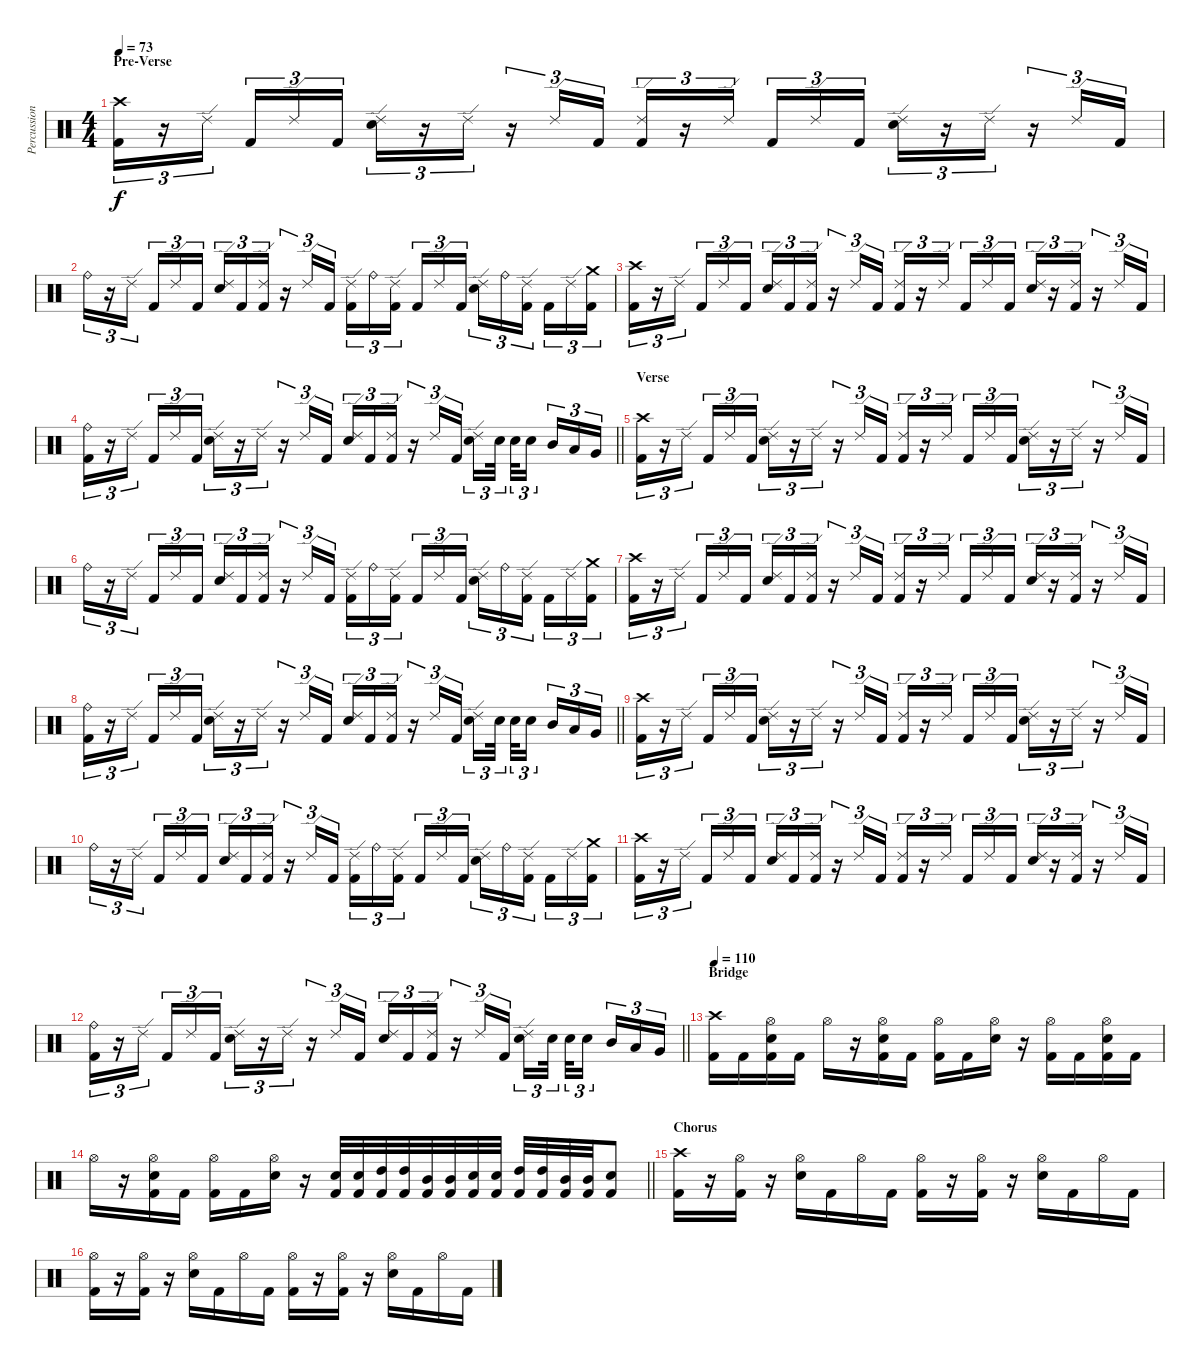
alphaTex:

\track ("Percussion" "Percussion") {instrument percussion}
\staff {score}
\articulation defaults
\ts (4 4)
\section ("" "Pre-Verse")
\tempo 73
\clef neutral
\ks c
("Crash high (hit)" "Kick (hit) 2").16{tu (3 2) dy f} r.16{tu (3 2)} "Ride (edge) 2".16{tu (3 2) beam splitsecondary} "Kick (hit) 2".16{tu (3 2)} "Ride (edge) 2".16{tu (3 2)} "Kick (hit) 2".16{tu (3 2)} ("Ride (edge) 2" "Snare (hit) 2").16{tu (3 2)} r.16{tu (3 2)} "Ride (edge) 2".16{tu (3 2)} r.16{tu (3 2)} "Ride (edge) 2".16{tu (3 2)} "Kick (hit) 2".16{tu (3 2)} ("Ride (edge) 2" "Kick (hit) 2").16{tu (3 2)} r.16{tu (3 2)} "Ride (edge) 2".16{tu (3 2) beam splitsecondary} "Kick (hit) 2".16{tu (3 2)} "Ride (edge) 2".16{tu (3 2)} "Kick (hit) 2".16{tu (3 2)} ("Ride (edge) 2" "Snare (hit) 2").16{tu (3 2)} r.16{tu (3 2)} "Ride (edge) 2".16{tu (3 2)} r.16{tu (3 2)} "Ride (edge) 2".16{tu (3 2)} "Kick (hit) 2".16{tu (3 2)} |
"Ride (bell)".16{tu (3 2)} r.16{tu (3 2)} "Ride (edge) 2".16{tu (3 2) beam splitsecondary} "Kick (hit) 2".16{tu (3 2)} "Ride (edge) 2".16{tu (3 2)} "Kick (hit) 2".16{tu (3 2)} ("Ride (edge) 2" "Snare (hit) 2").16{tu (3 2)} "Kick (hit) 2".16{tu (3 2)} ("Ride (edge) 2" "Kick (hit) 2").16{tu (3 2)} r.16{tu (3 2)} "Ride (edge) 2".16{tu (3 2)} "Kick (hit) 2".16{tu (3 2)} ("Ride (edge) 2" "Kick (hit) 2").16{tu (3 2)} "Ride (bell)".16{tu (3 2)} ("Ride (edge) 2" "Kick (hit) 2").16{tu (3 2) beam splitsecondary} "Kick (hit) 2".16{tu (3 2)} "Ride (edge) 2".16{tu (3 2)} "Kick (hit) 2".16{tu (3 2)} ("Ride (edge) 2" "Snare (hit) 2").16{tu (3 2)} "Ride (bell)".16{tu (3 2)} ("Ride (edge) 2" "Kick (hit) 2").16{tu (3 2) beam splitsecondary} "Kick (hit) 2".16{tu (3 2)} "Ride (edge) 2".16{tu (3 2)} ("Crash medium (hit)" "Kick (hit) 2").16{tu (3 2)} |
("Crash high (hit)" "Kick (hit) 2").16{tu (3 2)} r.16{tu (3 2)} "Ride (edge) 2".16{tu (3 2) beam splitsecondary} "Kick (hit) 2".16{tu (3 2)} "Ride (edge) 2".16{tu (3 2)} "Kick (hit) 2".16{tu (3 2)} ("Ride (edge) 2" "Snare (hit) 2").16{tu (3 2)} "Kick (hit) 2".16{tu (3 2)} ("Ride (edge) 2" "Kick (hit) 2").16{tu (3 2)} r.16{tu (3 2)} "Ride (edge) 2".16{tu (3 2)} "Kick (hit) 2".16{tu (3 2)} ("Ride (edge) 2" "Kick (hit) 2").16{tu (3 2)} r.16{tu (3 2)} "Ride (edge) 2".16{tu (3 2) beam splitsecondary} "Kick (hit) 2".16{tu (3 2)} "Ride (edge) 2".16{tu (3 2)} "Kick (hit) 2".16{tu (3 2)} ("Ride (edge) 2" "Snare (hit) 2").16{tu (3 2)} r.16{tu (3 2)} ("Ride (edge) 2" "Kick (hit) 2").16{tu (3 2)} r.16{tu (3 2)} "Ride (edge) 2".16{tu (3 2)} "Kick (hit) 2".16{tu (3 2)} |
\barLineRight lightlight
("Ride (bell)" "Kick (hit) 2").16{tu (3 2)} r.16{tu (3 2)} "Ride (edge) 2".16{tu (3 2) beam splitsecondary} "Kick (hit) 2".16{tu (3 2)} "Ride (edge) 2".16{tu (3 2)} "Kick (hit) 2".16{tu (3 2)} ("Ride (edge) 2" "Snare (hit) 2").16{tu (3 2)} r.16{tu (3 2)} "Ride (edge) 2".16{tu (3 2)} r.16{tu (3 2)} "Ride (edge) 2".16{tu (3 2)} "Kick (hit) 2".16{tu (3 2)} ("Ride (edge) 2" "Snare (hit) 2").16{tu (3 2)} "Kick (hit) 2".16{tu (3 2)} ("Ride (edge) 2" "Kick (hit) 2").16{tu (3 2)} r.16{tu (3 2)} "Ride (edge) 2".16{tu (3 2)} "Kick (hit) 2".16{tu (3 2)} ("Ride (edge) 2" "Snare (hit) 2").16{tu (3 2)} "Snare (hit) 2".32{tu (3 2) beam splitsecondary} "Snare (hit) 2".32{tu (3 2)} "Snare (hit) 2".16{tu (3 2) beam splitsecondary} "Mid Tom (hit)".16{tu (3 2)} "Low Tom (hit)".16{tu (3 2)} "Very Low Tom (hit)".16{tu (3 2)} |
\section ("" "Verse")
("Crash high (hit)" "Kick (hit) 2").16{tu (3 2)} r.16{tu (3 2)} "Ride (edge) 2".16{tu (3 2) beam splitsecondary} "Kick (hit) 2".16{tu (3 2)} "Ride (edge) 2".16{tu (3 2)} "Kick (hit) 2".16{tu (3 2)} ("Ride (edge) 2" "Snare (hit) 2").16{tu (3 2)} r.16{tu (3 2)} "Ride (edge) 2".16{tu (3 2)} r.16{tu (3 2)} "Ride (edge) 2".16{tu (3 2)} "Kick (hit) 2".16{tu (3 2)} ("Ride (edge) 2" "Kick (hit) 2").16{tu (3 2)} r.16{tu (3 2)} "Ride (edge) 2".16{tu (3 2) beam splitsecondary} "Kick (hit) 2".16{tu (3 2)} "Ride (edge) 2".16{tu (3 2)} "Kick (hit) 2".16{tu (3 2)} ("Ride (edge) 2" "Snare (hit) 2").16{tu (3 2)} r.16{tu (3 2)} "Ride (edge) 2".16{tu (3 2)} r.16{tu (3 2)} "Ride (edge) 2".16{tu (3 2)} "Kick (hit) 2".16{tu (3 2)} |
"Ride (bell)".16{tu (3 2)} r.16{tu (3 2)} "Ride (edge) 2".16{tu (3 2) beam splitsecondary} "Kick (hit) 2".16{tu (3 2)} "Ride (edge) 2".16{tu (3 2)} "Kick (hit) 2".16{tu (3 2)} ("Ride (edge) 2" "Snare (hit) 2").16{tu (3 2)} "Kick (hit) 2".16{tu (3 2)} ("Ride (edge) 2" "Kick (hit) 2").16{tu (3 2)} r.16{tu (3 2)} "Ride (edge) 2".16{tu (3 2)} "Kick (hit) 2".16{tu (3 2)} ("Ride (edge) 2" "Kick (hit) 2").16{tu (3 2)} "Ride (bell)".16{tu (3 2)} ("Ride (edge) 2" "Kick (hit) 2").16{tu (3 2) beam splitsecondary} "Kick (hit) 2".16{tu (3 2)} "Ride (edge) 2".16{tu (3 2)} "Kick (hit) 2".16{tu (3 2)} ("Ride (edge) 2" "Snare (hit) 2").16{tu (3 2)} "Ride (bell)".16{tu (3 2)} ("Ride (edge) 2" "Kick (hit) 2").16{tu (3 2) beam splitsecondary} "Kick (hit) 2".16{tu (3 2)} "Ride (edge) 2".16{tu (3 2)} ("Crash medium (hit)" "Kick (hit) 2").16{tu (3 2)} |
("Crash high (hit)" "Kick (hit) 2").16{tu (3 2)} r.16{tu (3 2)} "Ride (edge) 2".16{tu (3 2) beam splitsecondary} "Kick (hit) 2".16{tu (3 2)} "Ride (edge) 2".16{tu (3 2)} "Kick (hit) 2".16{tu (3 2)} ("Ride (edge) 2" "Snare (hit) 2").16{tu (3 2)} "Kick (hit) 2".16{tu (3 2)} ("Ride (edge) 2" "Kick (hit) 2").16{tu (3 2)} r.16{tu (3 2)} "Ride (edge) 2".16{tu (3 2)} "Kick (hit) 2".16{tu (3 2)} ("Ride (edge) 2" "Kick (hit) 2").16{tu (3 2)} r.16{tu (3 2)} "Ride (edge) 2".16{tu (3 2) beam splitsecondary} "Kick (hit) 2".16{tu (3 2)} "Ride (edge) 2".16{tu (3 2)} "Kick (hit) 2".16{tu (3 2)} ("Ride (edge) 2" "Snare (hit) 2").16{tu (3 2)} r.16{tu (3 2)} ("Ride (edge) 2" "Kick (hit) 2").16{tu (3 2)} r.16{tu (3 2)} "Ride (edge) 2".16{tu (3 2)} "Kick (hit) 2".16{tu (3 2)} |
\barLineRight lightlight
("Ride (bell)" "Kick (hit) 2").16{tu (3 2)} r.16{tu (3 2)} "Ride (edge) 2".16{tu (3 2) beam splitsecondary} "Kick (hit) 2".16{tu (3 2)} "Ride (edge) 2".16{tu (3 2)} "Kick (hit) 2".16{tu (3 2)} ("Ride (edge) 2" "Snare (hit) 2").16{tu (3 2)} r.16{tu (3 2)} "Ride (edge) 2".16{tu (3 2)} r.16{tu (3 2)} "Ride (edge) 2".16{tu (3 2)} "Kick (hit) 2".16{tu (3 2)} ("Ride (edge) 2" "Snare (hit) 2").16{tu (3 2)} "Kick (hit) 2".16{tu (3 2)} ("Ride (edge) 2" "Kick (hit) 2").16{tu (3 2)} r.16{tu (3 2)} "Ride (edge) 2".16{tu (3 2)} "Kick (hit) 2".16{tu (3 2)} ("Ride (edge) 2" "Snare (hit) 2").16{tu (3 2)} "Snare (hit) 2".32{tu (3 2) beam splitsecondary} "Snare (hit) 2".32{tu (3 2)} "Snare (hit) 2".16{tu (3 2) beam splitsecondary} "Mid Tom (hit)".16{tu (3 2)} "Low Tom (hit)".16{tu (3 2)} "Very Low Tom (hit)".16{tu (3 2)} |
("Crash high (hit)" "Kick (hit) 2").16{tu (3 2)} r.16{tu (3 2)} "Ride (edge) 2".16{tu (3 2) beam splitsecondary} "Kick (hit) 2".16{tu (3 2)} "Ride (edge) 2".16{tu (3 2)} "Kick (hit) 2".16{tu (3 2)} ("Ride (edge) 2" "Snare (hit) 2").16{tu (3 2)} r.16{tu (3 2)} "Ride (edge) 2".16{tu (3 2)} r.16{tu (3 2)} "Ride (edge) 2".16{tu (3 2)} "Kick (hit) 2".16{tu (3 2)} ("Ride (edge) 2" "Kick (hit) 2").16{tu (3 2)} r.16{tu (3 2)} "Ride (edge) 2".16{tu (3 2) beam splitsecondary} "Kick (hit) 2".16{tu (3 2)} "Ride (edge) 2".16{tu (3 2)} "Kick (hit) 2".16{tu (3 2)} ("Ride (edge) 2" "Snare (hit) 2").16{tu (3 2)} r.16{tu (3 2)} "Ride (edge) 2".16{tu (3 2)} r.16{tu (3 2)} "Ride (edge) 2".16{tu (3 2)} "Kick (hit) 2".16{tu (3 2)} |
"Ride (bell)".16{tu (3 2)} r.16{tu (3 2)} "Ride (edge) 2".16{tu (3 2) beam splitsecondary} "Kick (hit) 2".16{tu (3 2)} "Ride (edge) 2".16{tu (3 2)} "Kick (hit) 2".16{tu (3 2)} ("Ride (edge) 2" "Snare (hit) 2").16{tu (3 2)} "Kick (hit) 2".16{tu (3 2)} ("Ride (edge) 2" "Kick (hit) 2").16{tu (3 2)} r.16{tu (3 2)} "Ride (edge) 2".16{tu (3 2)} "Kick (hit) 2".16{tu (3 2)} ("Ride (edge) 2" "Kick (hit) 2").16{tu (3 2)} "Ride (bell)".16{tu (3 2)} ("Ride (edge) 2" "Kick (hit) 2").16{tu (3 2) beam splitsecondary} "Kick (hit) 2".16{tu (3 2)} "Ride (edge) 2".16{tu (3 2)} "Kick (hit) 2".16{tu (3 2)} ("Ride (edge) 2" "Snare (hit) 2").16{tu (3 2)} "Ride (bell)".16{tu (3 2)} ("Ride (edge) 2" "Kick (hit) 2").16{tu (3 2) beam splitsecondary} "Kick (hit) 2".16{tu (3 2)} "Ride (edge) 2".16{tu (3 2)} ("Crash medium (hit)" "Kick (hit) 2").16{tu (3 2)} |
("Crash high (hit)" "Kick (hit) 2").16{tu (3 2)} r.16{tu (3 2)} "Ride (edge) 2".16{tu (3 2) beam splitsecondary} "Kick (hit) 2".16{tu (3 2)} "Ride (edge) 2".16{tu (3 2)} "Kick (hit) 2".16{tu (3 2)} ("Ride (edge) 2" "Snare (hit) 2").16{tu (3 2)} "Kick (hit) 2".16{tu (3 2)} ("Ride (edge) 2" "Kick (hit) 2").16{tu (3 2)} r.16{tu (3 2)} "Ride (edge) 2".16{tu (3 2)} "Kick (hit) 2".16{tu (3 2)} ("Ride (edge) 2" "Kick (hit) 2").16{tu (3 2)} r.16{tu (3 2)} "Ride (edge) 2".16{tu (3 2) beam splitsecondary} "Kick (hit) 2".16{tu (3 2)} "Ride (edge) 2".16{tu (3 2)} "Kick (hit) 2".16{tu (3 2)} ("Ride (edge) 2" "Snare (hit) 2").16{tu (3 2)} r.16{tu (3 2)} ("Ride (edge) 2" "Kick (hit) 2").16{tu (3 2)} r.16{tu (3 2)} "Ride (edge) 2".16{tu (3 2)} "Kick (hit) 2".16{tu (3 2)} |
\barLineRight lightlight
("Ride (bell)" "Kick (hit) 2").16{tu (3 2)} r.16{tu (3 2)} "Ride (edge) 2".16{tu (3 2) beam splitsecondary} "Kick (hit) 2".16{tu (3 2)} "Ride (edge) 2".16{tu (3 2)} "Kick (hit) 2".16{tu (3 2)} ("Ride (edge) 2" "Snare (hit) 2").16{tu (3 2)} r.16{tu (3 2)} "Ride (edge) 2".16{tu (3 2)} r.16{tu (3 2)} "Ride (edge) 2".16{tu (3 2)} "Kick (hit) 2".16{tu (3 2)} ("Ride (edge) 2" "Snare (hit) 2").16{tu (3 2)} "Kick (hit) 2".16{tu (3 2)} ("Ride (edge) 2" "Kick (hit) 2").16{tu (3 2)} r.16{tu (3 2)} "Ride (edge) 2".16{tu (3 2)} "Kick (hit) 2".16{tu (3 2)} ("Ride (edge) 2" "Snare (hit) 2").16{tu (3 2)} "Snare (hit) 2".32{tu (3 2) beam splitsecondary} "Snare (hit) 2".32{tu (3 2)} "Snare (hit) 2".16{tu (3 2) beam splitsecondary} "Mid Tom (hit)".16{tu (3 2)} "Low Tom (hit)".16{tu (3 2)} "Very Low Tom (hit)".16{tu (3 2)} |
\section ("" "Bridge")
\tempo 115
\tempo 110
("Crash high (hit)" "Kick (hit) 2").16 "Kick (hit) 2".16 ("Hi-Hat (open)" "Snare (hit) 2" "Kick (hit) 2").16 "Kick (hit) 2".16 "Hi-Hat (open)".16 r.16 ("Hi-Hat (open)" "Snare (hit) 2" "Kick (hit) 2").16 "Kick (hit) 2".16 ("Hi-Hat (open)" "Kick (hit) 2").16 "Kick (hit) 2".16 ("Hi-Hat (open)" "Snare (hit) 2").16 r.16 ("Hi-Hat (open)" "Kick (hit) 2").16 "Kick (hit) 2".16 ("Hi-Hat (open)" "Snare (hit) 2" "Kick (hit) 2").16 "Kick (hit) 2".16 |
\barLineRight lightlight "Hi-Hat (open)".16
r.16 ("Hi-Hat (open)" "Snare (hit) 2" "Kick (hit) 2").16 "Kick (hit) 2".16 ("Hi-Hat (open)" "Kick (hit) 2").16 "Kick (hit) 2".16 ("Hi-Hat (open)" "Snare (hit) 2").16 r.16 ("Snare (hit) 2" "Kick (hit) 2").32 ("Snare (hit) 2" "Kick (hit) 2").32 ("High Tom (hit)" "Kick (hit) 2").32 ("High Tom (hit)" "Kick (hit) 2").32 ("Mid Tom (hit)" "Kick (hit) 2").32 ("Mid Tom (hit)" "Kick (hit) 2").32 ("Snare (hit) 2" "Kick (hit) 2").32 ("Snare (hit) 2" "Kick (hit) 2").32 ("High Tom (hit)" "Kick (hit) 2").32 ("High Tom (hit)" "Kick (hit) 2").32 ("Mid Tom (hit)" "Kick (hit) 2").32 ("Mid Tom (hit)" "Kick (hit) 2").32 ("Snare (hit) 2" "Kick (hit) 2").8 |
\section ("" "Chorus")
("Crash high (hit)" "Kick (hit) 2").16 r.16 ("Hi-Hat (open)" "Kick (hit) 2").16 r.16 ("Hi-Hat (open)" "Snare (hit) 2").16 "Kick (hit) 2".16 "Hi-Hat (open)".16 "Kick (hit) 2".16 ("Hi-Hat (open)" "Kick (hit) 2").16 r.16 ("Hi-Hat (open)" "Kick (hit) 2").16 r.16 ("Hi-Hat (open)" "Snare (hit) 2").16 "Kick (hit) 2".16 "Hi-Hat (open)".16 "Kick (hit) 2".16 |
("Hi-Hat (open)" "Kick (hit) 2").16 r.16 ("Hi-Hat (open)" "Kick (hit) 2").16 r.16 ("Hi-Hat (open)" "Snare (hit) 2").16 "Kick (hit) 2".16 "Hi-Hat (open)".16 "Kick (hit) 2".16 ("Hi-Hat (open)" "Kick (hit) 2").16 r.16 ("Hi-Hat (open)" "Kick (hit) 2").16 r.16 ("Hi-Hat (open)" "Snare (hit) 2").16 "Kick (hit) 2".16 "Hi-Hat (open)".16 "Kick (hit) 2".16
